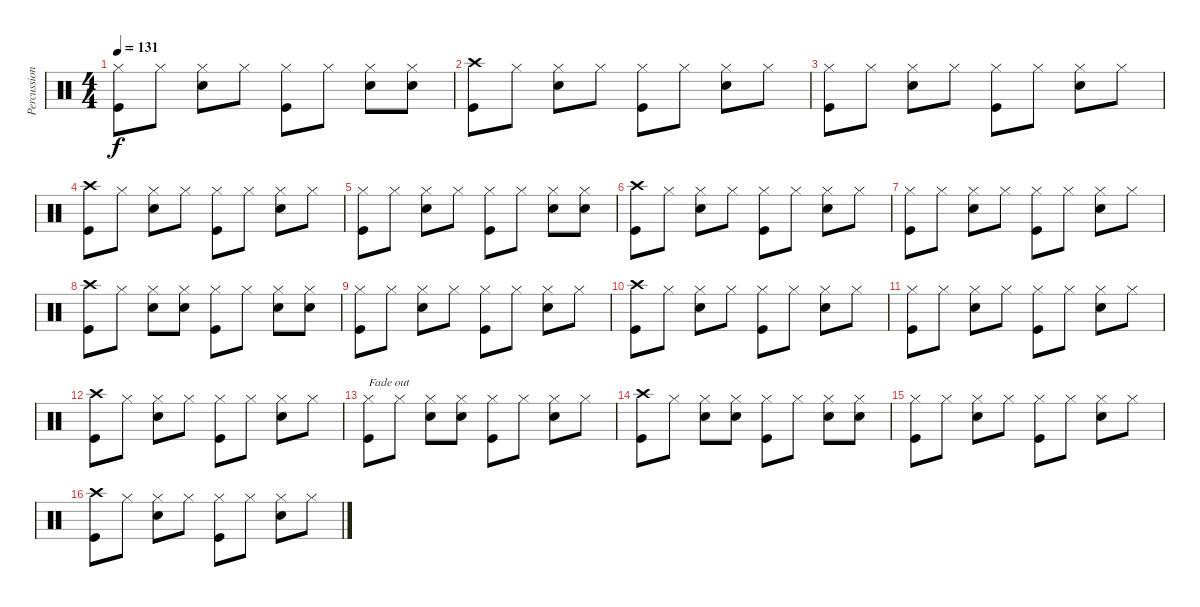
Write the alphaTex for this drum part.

\track ("Percussion" "Percussion") {instrument percussion}
\staff {score}
\articulation defaults
\ts (4 4)
\tempo 131
\clef neutral
\ks c
("Hi-Hat (closed)" "Kick (hit)").8{dy f} "Hi-Hat (closed)".8 ("Hi-Hat (closed)" "Snare (hit) 2").8 "Hi-Hat (closed)".8 ("Hi-Hat (closed)" "Kick (hit)").8 "Hi-Hat (closed)".8 ("Hi-Hat (closed)" "Snare (hit) 2").8 ("Hi-Hat (closed)" "Snare (hit) 2").8 |
("Crash high (hit)" "Kick (hit)").8 "Hi-Hat (closed)".8 ("Hi-Hat (closed)" "Snare (hit) 2").8 "Hi-Hat (closed)".8 ("Hi-Hat (closed)" "Kick (hit)").8 "Hi-Hat (closed)".8 ("Hi-Hat (closed)" "Snare (hit) 2").8 "Hi-Hat (closed)".8 |
("Hi-Hat (closed)" "Kick (hit)").8 "Hi-Hat (closed)".8 ("Hi-Hat (closed)" "Snare (hit) 2").8 "Hi-Hat (closed)".8 ("Hi-Hat (closed)" "Kick (hit)").8 "Hi-Hat (closed)".8 ("Hi-Hat (closed)" "Snare (hit) 2").8 "Hi-Hat (closed)".8 |
("Crash high (hit)" "Kick (hit)").8 "Hi-Hat (closed)".8 ("Hi-Hat (closed)" "Snare (hit) 2").8 "Hi-Hat (closed)".8 ("Hi-Hat (closed)" "Kick (hit)").8 "Hi-Hat (closed)".8 ("Hi-Hat (closed)" "Snare (hit) 2").8 "Hi-Hat (closed)".8 |
("Hi-Hat (closed)" "Kick (hit)").8 "Hi-Hat (closed)".8 ("Hi-Hat (closed)" "Snare (hit) 2").8 "Hi-Hat (closed)".8 ("Hi-Hat (closed)" "Kick (hit)").8 "Hi-Hat (closed)".8 ("Hi-Hat (closed)" "Snare (hit) 2").8 ("Hi-Hat (closed)" "Snare (hit) 2").8 |
("Crash high (hit)" "Kick (hit)").8 "Hi-Hat (closed)".8 ("Hi-Hat (closed)" "Snare (hit) 2").8 "Hi-Hat (closed)".8 ("Hi-Hat (closed)" "Kick (hit)").8 "Hi-Hat (closed)".8 ("Hi-Hat (closed)" "Snare (hit) 2").8 "Hi-Hat (closed)".8 |
("Hi-Hat (closed)" "Kick (hit)").8 "Hi-Hat (closed)".8 ("Hi-Hat (closed)" "Snare (hit) 2").8 "Hi-Hat (closed)".8 ("Hi-Hat (closed)" "Kick (hit)").8 "Hi-Hat (closed)".8 ("Hi-Hat (closed)" "Snare (hit) 2").8 "Hi-Hat (closed)".8 |
("Crash high (hit)" "Kick (hit)").8 "Hi-Hat (closed)".8 ("Hi-Hat (closed)" "Snare (hit) 2").8 ("Hi-Hat (closed)" "Snare (hit) 2").8 ("Hi-Hat (closed)" "Kick (hit)").8 "Hi-Hat (closed)".8 ("Hi-Hat (closed)" "Snare (hit) 2").8 ("Hi-Hat (closed)" "Snare (hit) 2").8 |
("Hi-Hat (closed)" "Kick (hit)").8 "Hi-Hat (closed)".8 ("Hi-Hat (closed)" "Snare (hit) 2").8 "Hi-Hat (closed)".8 ("Hi-Hat (closed)" "Kick (hit)").8 "Hi-Hat (closed)".8 ("Hi-Hat (closed)" "Snare (hit) 2").8 "Hi-Hat (closed)".8 |
("Crash high (hit)" "Kick (hit)").8 "Hi-Hat (closed)".8 ("Hi-Hat (closed)" "Snare (hit) 2").8 "Hi-Hat (closed)".8 ("Hi-Hat (closed)" "Kick (hit)").8 "Hi-Hat (closed)".8 ("Hi-Hat (closed)" "Snare (hit) 2").8 "Hi-Hat (closed)".8 |
("Hi-Hat (closed)" "Kick (hit)").8 "Hi-Hat (closed)".8 ("Hi-Hat (closed)" "Snare (hit) 2").8 "Hi-Hat (closed)".8 ("Hi-Hat (closed)" "Kick (hit)").8 "Hi-Hat (closed)".8 ("Hi-Hat (closed)" "Snare (hit) 2").8 "Hi-Hat (closed)".8 |
("Crash high (hit)" "Kick (hit)").8 "Hi-Hat (closed)".8 ("Hi-Hat (closed)" "Snare (hit) 2").8 "Hi-Hat (closed)".8 ("Hi-Hat (closed)" "Kick (hit)").8 "Hi-Hat (closed)".8 ("Hi-Hat (closed)" "Snare (hit) 2").8 "Hi-Hat (closed)".8 |
("Hi-Hat (closed)" "Kick (hit)").8{txt "Fade out" volume 4} "Hi-Hat (closed)".8 ("Hi-Hat (closed)" "Snare (hit) 2").8 ("Hi-Hat (closed)" "Snare (hit) 2").8 ("Hi-Hat (closed)" "Kick (hit)").8 "Hi-Hat (closed)".8 ("Hi-Hat (closed)" "Snare (hit) 2").8 "Hi-Hat (closed)".8 |
("Crash high (hit)" "Kick (hit)").8 "Hi-Hat (closed)".8 ("Hi-Hat (closed)" "Snare (hit) 2").8 ("Hi-Hat (closed)" "Snare (hit) 2").8 ("Hi-Hat (closed)" "Kick (hit)").8 "Hi-Hat (closed)".8 ("Hi-Hat (closed)" "Snare (hit) 2").8 ("Hi-Hat (closed)" "Snare (hit) 2").8 |
("Hi-Hat (closed)" "Kick (hit)").8{volume 0} "Hi-Hat (closed)".8 ("Hi-Hat (closed)" "Snare (hit) 2").8 "Hi-Hat (closed)".8 ("Hi-Hat (closed)" "Kick (hit)").8 "Hi-Hat (closed)".8 ("Hi-Hat (closed)" "Snare (hit) 2").8 "Hi-Hat (closed)".8 |
("Crash high (hit)" "Kick (hit)").8 "Hi-Hat (closed)".8 ("Hi-Hat (closed)" "Snare (hit) 2").8 "Hi-Hat (closed)".8 ("Hi-Hat (closed)" "Kick (hit)").8 "Hi-Hat (closed)".8 ("Hi-Hat (closed)" "Snare (hit) 2").8 "Hi-Hat (closed)".8
